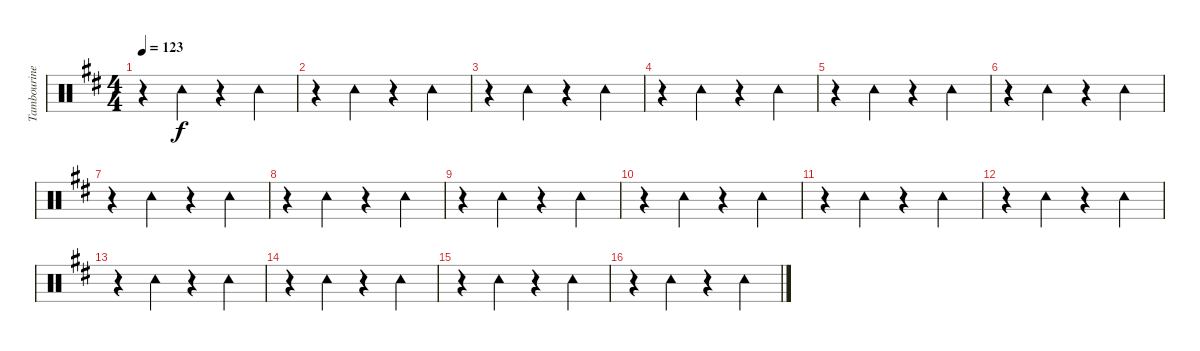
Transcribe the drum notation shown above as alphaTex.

\track ("Tambourine" "Tambourine") {instrument percussion}
\staff {score}
\articulation defaults
\ts (4 4)
\tempo 123
\clef neutral
\ks d
r.4{dy f} "Tambourine (hit)".4 r.4 "Tambourine (hit)".4 |
r.4 "Tambourine (hit)".4 r.4 "Tambourine (hit)".4 |
r.4 "Tambourine (hit)".4 r.4 "Tambourine (hit)".4 |
r.4 "Tambourine (hit)".4 r.4 "Tambourine (hit)".4 |
r.4 "Tambourine (hit)".4 r.4 "Tambourine (hit)".4 |
r.4 "Tambourine (hit)".4 r.4 "Tambourine (hit)".4 |
r.4 "Tambourine (hit)".4 r.4 "Tambourine (hit)".4 |
r.4 "Tambourine (hit)".4 r.4 "Tambourine (hit)".4 |
r.4 "Tambourine (hit)".4 r.4 "Tambourine (hit)".4 |
r.4 "Tambourine (hit)".4 r.4 "Tambourine (hit)".4 |
r.4 "Tambourine (hit)".4 r.4 "Tambourine (hit)".4 |
r.4 "Tambourine (hit)".4 r.4 "Tambourine (hit)".4 |
r.4 "Tambourine (hit)".4 r.4 "Tambourine (hit)".4 |
r.4 "Tambourine (hit)".4 r.4 "Tambourine (hit)".4 |
r.4 "Tambourine (hit)".4 r.4 "Tambourine (hit)".4 |
r.4 "Tambourine (hit)".4 r.4 "Tambourine (hit)".4
